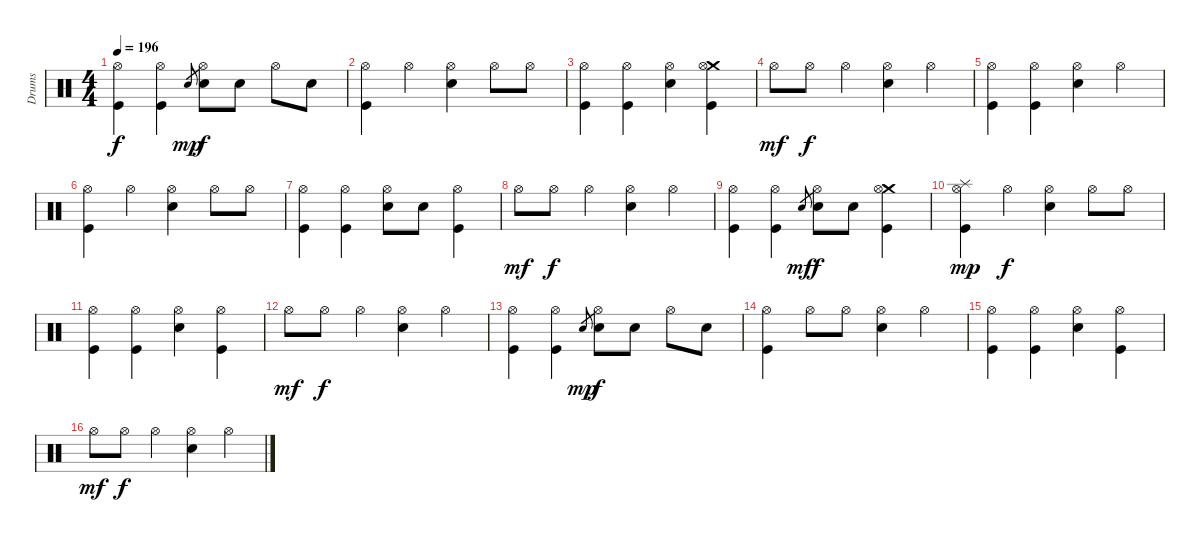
\track ("Drums" "Drums") {instrument percussion}
\staff {score}
\articulation defaults
\ts (4 4)
\tempo 196
\clef neutral
\ks c
("Hi-Hat (open)" "Kick (hit)").4{dy f} ("Hi-Hat (open)" "Kick (hit)").4 "Electric Snare (hit)".8{gr dy mp} ("Hi-Hat (open)" "Electric Snare (hit)").8{dy f} "Electric Snare (hit)".8 "Hi-Hat (open)".8 "Electric Snare (hit)".8 |
("Hi-Hat (open)" "Kick (hit)").4 "Hi-Hat (open)".4 ("Hi-Hat (open)" "Electric Snare (hit)").4 "Hi-Hat (open)".8 "Hi-Hat (open)".8 |
("Hi-Hat (open)" "Kick (hit)").4 ("Hi-Hat (open)" "Kick (hit)").4 ("Hi-Hat (open)" "Electric Snare (hit)").4 ("Crash medium (hit)" "Hi-Hat (open)" "Kick (hit)").4 |
"Hi-Hat (open)".8{dy mf} "Hi-Hat (open)".8{dy f} "Hi-Hat (open)".4 ("Hi-Hat (open)" "Electric Snare (hit)").4 "Hi-Hat (open)".4 |
("Hi-Hat (open)" "Kick (hit)").4 ("Hi-Hat (open)" "Kick (hit)").4 ("Hi-Hat (open)" "Electric Snare (hit)").4 "Hi-Hat (open)".4 |
("Hi-Hat (open)" "Kick (hit)").4 "Hi-Hat (open)".4 ("Hi-Hat (open)" "Electric Snare (hit)").4 "Hi-Hat (open)".8 "Hi-Hat (open)".8 |
("Hi-Hat (open)" "Kick (hit)").4 ("Hi-Hat (open)" "Kick (hit)").4 ("Hi-Hat (open)" "Electric Snare (hit)").8 "Electric Snare (hit)".8 ("Hi-Hat (open)" "Kick (hit)").4 |
"Hi-Hat (open)".8{dy mf} "Hi-Hat (open)".8{dy f} "Hi-Hat (open)".4 ("Hi-Hat (open)" "Electric Snare (hit)").4 "Hi-Hat (open)".4 |
("Hi-Hat (open)" "Kick (hit)").4 ("Hi-Hat (open)" "Kick (hit)").4 "Electric Snare (hit)".8{gr dy mf} ("Hi-Hat (open)" "Electric Snare (hit)").8{dy f} "Electric Snare (hit)".8 ("Crash medium (hit)" "Hi-Hat (open)" "Kick (hit)").4 |
("Splash (hit)" "Hi-Hat (open)" "Kick (hit)").4{dy mp} "Hi-Hat (open)".4{dy f} ("Hi-Hat (open)" "Electric Snare (hit)").4 "Hi-Hat (open)".8 "Hi-Hat (open)".8 |
("Hi-Hat (open)" "Kick (hit)").4 ("Hi-Hat (open)" "Kick (hit)").4 ("Hi-Hat (open)" "Electric Snare (hit)").4 ("Hi-Hat (open)" "Kick (hit)").4 |
"Hi-Hat (open)".8{dy mf} "Hi-Hat (open)".8{dy f} "Hi-Hat (open)".4 ("Hi-Hat (open)" "Electric Snare (hit)").4 "Hi-Hat (open)".4 |
("Hi-Hat (open)" "Kick (hit)").4 ("Hi-Hat (open)" "Kick (hit)").4 "Electric Snare (hit)".8{gr dy mp} ("Hi-Hat (open)" "Electric Snare (hit)").8{dy f} "Electric Snare (hit)".8 "Hi-Hat (open)".8 "Electric Snare (hit)".8 |
("Hi-Hat (open)" "Kick (hit)").4 "Hi-Hat (open)".8 "Hi-Hat (open)".8 ("Hi-Hat (open)" "Electric Snare (hit)").4 "Hi-Hat (open)".4 |
("Hi-Hat (open)" "Kick (hit)").4 ("Hi-Hat (open)" "Kick (hit)").4 ("Hi-Hat (open)" "Electric Snare (hit)").4 ("Hi-Hat (open)" "Kick (hit)").4 |
"Hi-Hat (open)".8{dy mf} "Hi-Hat (open)".8{dy f} "Hi-Hat (open)".4 ("Hi-Hat (open)" "Electric Snare (hit)").4 "Hi-Hat (open)".4
